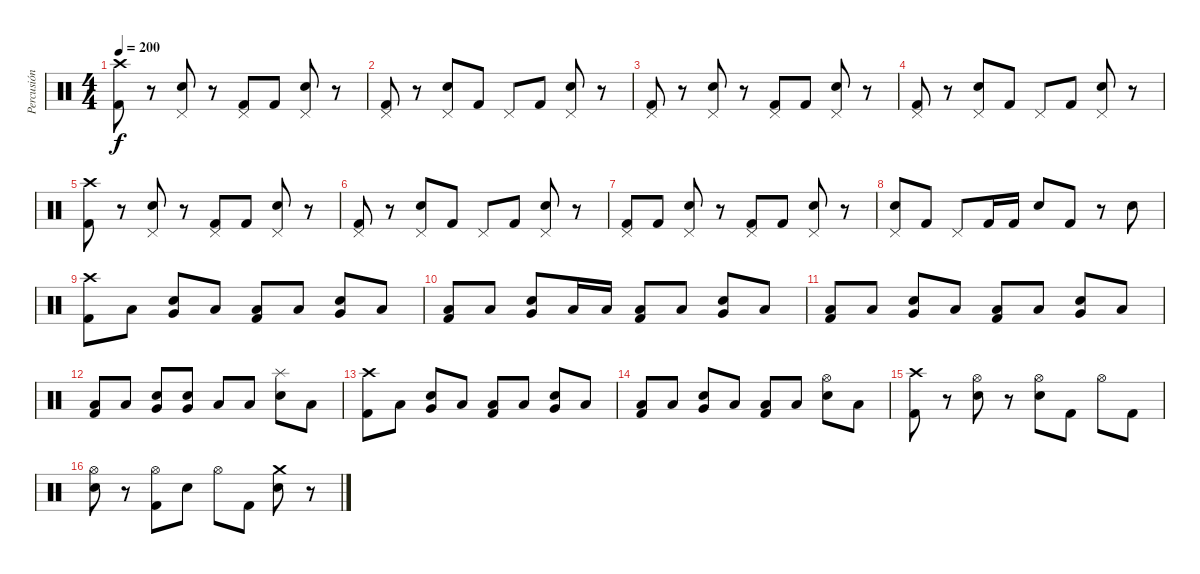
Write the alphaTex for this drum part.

\track ("Percusión" "Percusión") {instrument percussion}
\staff {score}
\articulation defaults
\ts (4 4)
\tempo 200
\clef neutral
\ks c
("Kick (hit) 2" "Crash high (hit)").8{dy f} r.8 ("Snare (hit) 2" "Pedal Hi-Hat (hit)").8 r.8 ("Kick (hit) 2" "Pedal Hi-Hat (hit)").8 "Kick (hit) 2".8 ("Snare (hit) 2" "Pedal Hi-Hat (hit)").8 r.8 |
("Kick (hit) 2" "Pedal Hi-Hat (hit)").8 r.8 ("Snare (hit) 2" "Pedal Hi-Hat (hit)").8 "Kick (hit) 2".8 "Pedal Hi-Hat (hit)".8 "Kick (hit) 2".8 ("Snare (hit) 2" "Pedal Hi-Hat (hit)").8 r.8 |
("Kick (hit) 2" "Pedal Hi-Hat (hit)").8 r.8 ("Snare (hit) 2" "Pedal Hi-Hat (hit)").8 r.8 ("Kick (hit) 2" "Pedal Hi-Hat (hit)").8 "Kick (hit) 2".8 ("Snare (hit) 2" "Pedal Hi-Hat (hit)").8 r.8 |
("Kick (hit) 2" "Pedal Hi-Hat (hit)").8 r.8 ("Snare (hit) 2" "Pedal Hi-Hat (hit)").8 "Kick (hit) 2".8 "Pedal Hi-Hat (hit)".8 "Kick (hit) 2".8 ("Snare (hit) 2" "Pedal Hi-Hat (hit)").8 r.8 |
("Kick (hit) 2" "Crash high (hit)").8 r.8 ("Snare (hit) 2" "Pedal Hi-Hat (hit)").8 r.8 ("Kick (hit) 2" "Pedal Hi-Hat (hit)").8 "Kick (hit) 2".8 ("Snare (hit) 2" "Pedal Hi-Hat (hit)").8 r.8 |
("Kick (hit) 2" "Pedal Hi-Hat (hit)").8 r.8 ("Snare (hit) 2" "Pedal Hi-Hat (hit)").8 "Kick (hit) 2".8 "Pedal Hi-Hat (hit)".8 "Kick (hit) 2".8 ("Snare (hit) 2" "Pedal Hi-Hat (hit)").8 r.8 |
("Kick (hit) 2" "Pedal Hi-Hat (hit)").8 "Kick (hit) 2".8 ("Snare (hit) 2" "Pedal Hi-Hat (hit)").8 r.8 ("Kick (hit) 2" "Pedal Hi-Hat (hit)").8 "Kick (hit) 2".8 ("Snare (hit) 2" "Pedal Hi-Hat (hit)").8 r.8 |
("Snare (hit) 2" "Pedal Hi-Hat (hit)").8 "Kick (hit) 2".8 "Pedal Hi-Hat (hit)".8 "Kick (hit) 2".16 "Kick (hit) 2".16 "Snare (hit) 2".8 "Kick (hit) 2".8 r.8 "Snare (hit) 2".8 |
("Kick (hit) 2" "Crash high (hit)").8 "Low Tom (hit)".8 ("Snare (hit) 2" "Very Low Tom (hit)").8 "Low Tom (hit)".8 ("Kick (hit) 2" "Low Tom (hit)").8 "Low Tom (hit)".8 ("Snare (hit) 2" "Very Low Tom (hit)").8 "Low Tom (hit)".8 |
("Kick (hit) 2" "Low Tom (hit)").8 "Low Tom (hit)".8 ("Snare (hit) 2" "Very Low Tom (hit)").8 "Low Tom (hit)".16 "Low Tom (hit)".16 ("Kick (hit) 2" "Low Tom (hit)").8 "Low Tom (hit)".8 ("Snare (hit) 2" "Very Low Tom (hit)").8 "Low Tom (hit)".8 |
("Kick (hit) 2" "Low Tom (hit)").8 "Low Tom (hit)".8 ("Snare (hit) 2" "Very Low Tom (hit)").8 "Low Tom (hit)".8 ("Kick (hit) 2" "Low Tom (hit)").8 "Low Tom (hit)".8 ("Snare (hit) 2" "Very Low Tom (hit)").8 "Low Tom (hit)".8 |
("Kick (hit) 2" "Low Tom (hit)").8 "Low Tom (hit)".8 ("Snare (hit) 2" "Very Low Tom (hit)").8 ("Snare (hit) 2" "Very Low Tom (hit)").8 "Low Tom (hit)".8 "Low Tom (hit)".8 ("Snare (hit) 2" "Splash (hit)").8 "Low Tom (hit)".8 |
("Kick (hit) 2" "Crash high (hit)").8 "Low Tom (hit)".8 ("Snare (hit) 2" "Very Low Tom (hit)").8 "Low Tom (hit)".8 ("Kick (hit) 2" "Low Tom (hit)").8 "Low Tom (hit)".8 ("Snare (hit) 2" "Very Low Tom (hit)").8 "Low Tom (hit)".8 |
("Kick (hit) 2" "Low Tom (hit)").8 "Low Tom (hit)".8 ("Snare (hit) 2" "Very Low Tom (hit)").8 "Low Tom (hit)".8 ("Kick (hit) 2" "Low Tom (hit)").8 "Low Tom (hit)".8 ("Snare (hit) 2" "Hi-Hat (open)").8 "Low Tom (hit)".8 |
("Kick (hit) 2" "Crash high (hit)").8 r.8 ("Snare (hit) 2" "Hi-Hat (open)").8 r.8 ("Snare (hit) 2" "Hi-Hat (open)").8 "Kick (hit) 2".8 "Hi-Hat (open)".8 "Kick (hit) 2".8 |
("Snare (hit) 2" "Hi-Hat (open)").8 r.8 ("Kick (hit) 2" "Hi-Hat (open)").8 "Snare (hit) 2".8 "Hi-Hat (open)".8 "Kick (hit) 2".8 ("Snare (hit) 2" "Crash medium (hit)").8 r.8
